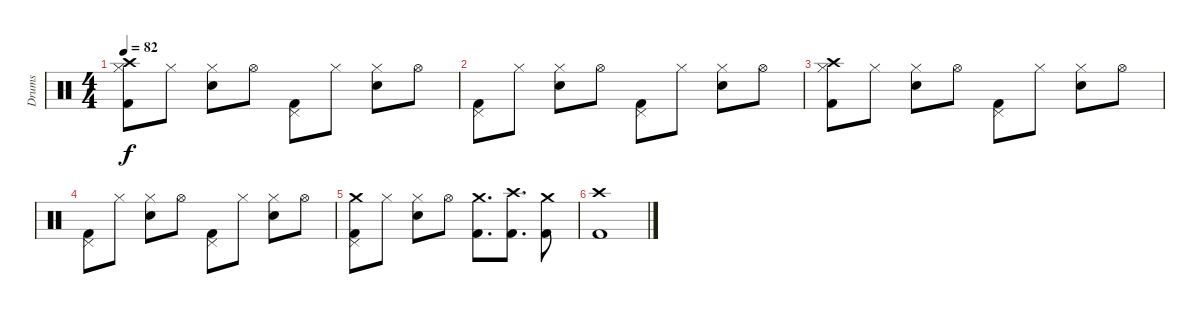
\track ("Drums" "Drums") {instrument percussion}
\staff {score}
\articulation defaults
\ts (4 4)
\tempo 82
\clef neutral
\ks c
("Crash high (hit)" "Kick (hit) 2" "Hi-Hat (closed)").8{dy f} "Hi-Hat (closed)".8 ("Snare (hit) 2" "Hi-Hat (closed)").8 "Hi-Hat (open)".8 ("Pedal Hi-Hat (hit)" "Kick (hit) 2").8 "Hi-Hat (closed)".8 ("Snare (hit) 2" "Hi-Hat (closed)").8 "Hi-Hat (open)".8 |
("Pedal Hi-Hat (hit)" "Kick (hit) 2").8 "Hi-Hat (closed)".8 ("Snare (hit) 2" "Hi-Hat (closed)").8 "Hi-Hat (open)".8 ("Pedal Hi-Hat (hit)" "Kick (hit) 2").8 "Hi-Hat (closed)".8 ("Snare (hit) 2" "Hi-Hat (closed)").8 "Hi-Hat (open)".8 |
("Crash high (hit)" "Kick (hit) 2" "Hi-Hat (closed)").8 "Hi-Hat (closed)".8 ("Snare (hit) 2" "Hi-Hat (closed)").8 "Hi-Hat (open)".8 ("Pedal Hi-Hat (hit)" "Kick (hit) 2").8 "Hi-Hat (closed)".8 ("Snare (hit) 2" "Hi-Hat (closed)").8 "Hi-Hat (open)".8 |
("Pedal Hi-Hat (hit)" "Kick (hit) 2").8 "Hi-Hat (closed)".8 ("Snare (hit) 2" "Hi-Hat (closed)").8 "Hi-Hat (open)".8 ("Pedal Hi-Hat (hit)" "Kick (hit) 2").8 "Hi-Hat (closed)".8 ("Snare (hit) 2" "Hi-Hat (closed)").8 "Hi-Hat (open)".8 |
("Crash medium (hit)" "Pedal Hi-Hat (hit)" "Kick (hit) 2").8 "Hi-Hat (closed)".8 ("Snare (hit) 2" "Hi-Hat (closed)").8 "Hi-Hat (open)".8 ("Crash medium (hit)" "Kick (hit) 2").8{d} ("Crash high (hit)" "Kick (hit) 2").8{d} ("Crash medium (hit)" "Kick (hit) 2").8 |
("Crash high (hit)" "Kick (hit) 2").1
